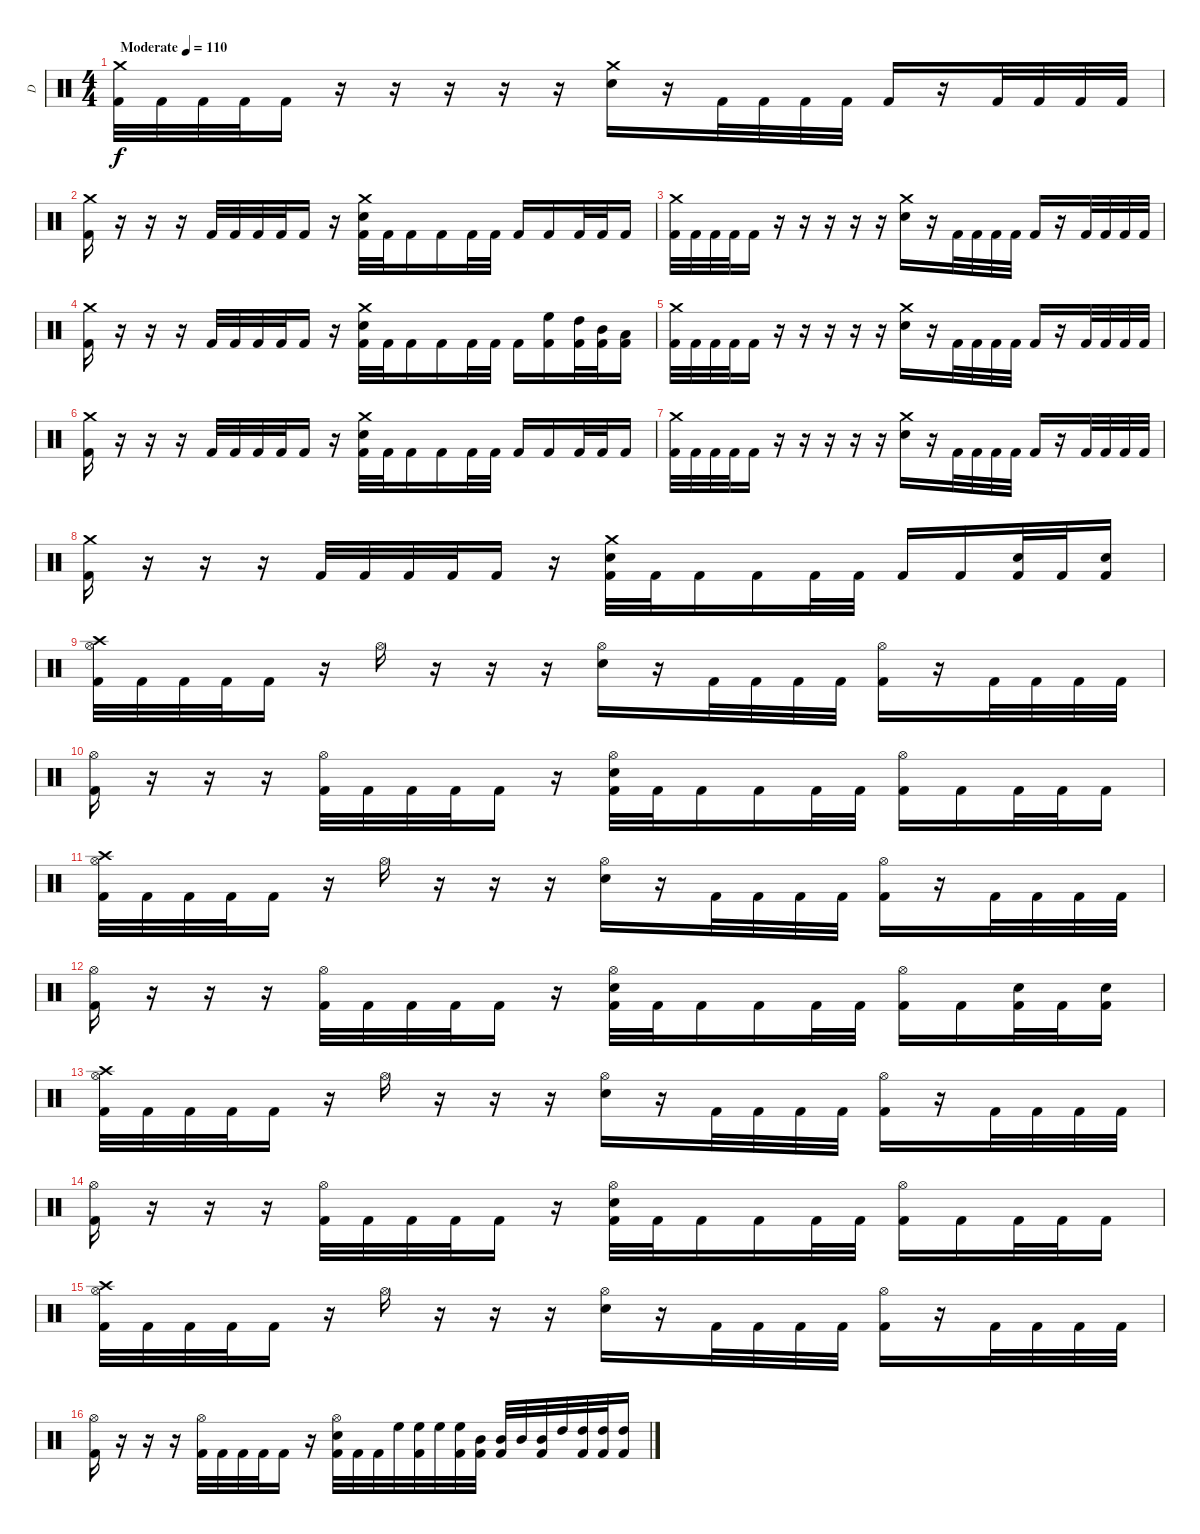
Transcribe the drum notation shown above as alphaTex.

\track ("D" "D") {instrument percussion}
\staff {score}
\articulation defaults
\ts (4 4)
\tempo (110 "Moderate")
\clef neutral
\ks c
("Crash medium (hit)" "Kick (hit) 2").32{dy f} "Kick (hit) 2".32 "Kick (hit) 2".32 "Kick (hit) 2".32 "Kick (hit) 2".16 r.16 r.16 r.16 r.16 r.16 ("Crash medium (hit)" "Electric Snare (hit)").16 r.16 "Kick (hit) 2".32 "Kick (hit) 2".32 "Kick (hit) 2".32 "Kick (hit) 2".32 "Kick (hit) 2".16 r.16 "Kick (hit) 2".32 "Kick (hit) 2".32 "Kick (hit) 2".32 "Kick (hit) 2".32 |
("Crash medium (hit)" "Kick (hit) 2").16 r.16 r.16 r.16 "Kick (hit) 2".32 "Kick (hit) 2".32 "Kick (hit) 2".32 "Kick (hit) 2".32 "Kick (hit) 2".16 r.16 ("Crash medium (hit)" "Electric Snare (hit)" "Kick (hit) 2").32 "Kick (hit) 2".32 "Kick (hit) 2".16 "Kick (hit) 2".16 "Kick (hit) 2".32 "Kick (hit) 2".32 "Kick (hit) 2".16 "Kick (hit) 2".16 "Kick (hit) 2".32 "Kick (hit) 2".32 "Kick (hit) 2".16 |
("Crash medium (hit)" "Kick (hit) 2").32 "Kick (hit) 2".32 "Kick (hit) 2".32 "Kick (hit) 2".32 "Kick (hit) 2".16 r.16 r.16 r.16 r.16 r.16 ("Crash medium (hit)" "Electric Snare (hit)").16 r.16 "Kick (hit) 2".32 "Kick (hit) 2".32 "Kick (hit) 2".32 "Kick (hit) 2".32 "Kick (hit) 2".16 r.16 "Kick (hit) 2".32 "Kick (hit) 2".32 "Kick (hit) 2".32 "Kick (hit) 2".32 |
("Crash medium (hit)" "Kick (hit) 2").16 r.16 r.16 r.16 "Kick (hit) 2".32 "Kick (hit) 2".32 "Kick (hit) 2".32 "Kick (hit) 2".32 "Kick (hit) 2".16 r.16 ("Crash medium (hit)" "Electric Snare (hit)" "Kick (hit) 2").32 "Kick (hit) 2".32 "Kick (hit) 2".16 "Kick (hit) 2".16 "Kick (hit) 2".32 "Kick (hit) 2".32 "Kick (hit) 2".16 ("High Floor Tom (hit)" "Kick (hit) 2").16 ("High Tom (hit)" "Kick (hit) 2").32 ("Mid Tom (hit)" "Kick (hit) 2").32 ("Low Tom (hit)" "Kick (hit) 2").16 |
("Crash medium (hit)" "Kick (hit) 2").32 "Kick (hit) 2".32 "Kick (hit) 2".32 "Kick (hit) 2".32 "Kick (hit) 2".16 r.16 r.16 r.16 r.16 r.16 ("Crash medium (hit)" "Electric Snare (hit)").16 r.16 "Kick (hit) 2".32 "Kick (hit) 2".32 "Kick (hit) 2".32 "Kick (hit) 2".32 "Kick (hit) 2".16 r.16 "Kick (hit) 2".32 "Kick (hit) 2".32 "Kick (hit) 2".32 "Kick (hit) 2".32 |
("Crash medium (hit)" "Kick (hit) 2").16 r.16 r.16 r.16 "Kick (hit) 2".32 "Kick (hit) 2".32 "Kick (hit) 2".32 "Kick (hit) 2".32 "Kick (hit) 2".16 r.16 ("Crash medium (hit)" "Electric Snare (hit)" "Kick (hit) 2").32 "Kick (hit) 2".32 "Kick (hit) 2".16 "Kick (hit) 2".16 "Kick (hit) 2".32 "Kick (hit) 2".32 "Kick (hit) 2".16 "Kick (hit) 2".16 "Kick (hit) 2".32 "Kick (hit) 2".32 "Kick (hit) 2".16 |
("Crash medium (hit)" "Kick (hit) 2").32 "Kick (hit) 2".32 "Kick (hit) 2".32 "Kick (hit) 2".32 "Kick (hit) 2".16 r.16 r.16 r.16 r.16 r.16 ("Crash medium (hit)" "Electric Snare (hit)").16 r.16 "Kick (hit) 2".32 "Kick (hit) 2".32 "Kick (hit) 2".32 "Kick (hit) 2".32 "Kick (hit) 2".16 r.16 "Kick (hit) 2".32 "Kick (hit) 2".32 "Kick (hit) 2".32 "Kick (hit) 2".32 |
("Crash medium (hit)" "Kick (hit) 2").16 r.16 r.16 r.16 "Kick (hit) 2".32 "Kick (hit) 2".32 "Kick (hit) 2".32 "Kick (hit) 2".32 "Kick (hit) 2".16 r.16 ("Crash medium (hit)" "Electric Snare (hit)" "Kick (hit) 2").32 "Kick (hit) 2".32 "Kick (hit) 2".16 "Kick (hit) 2".16 "Kick (hit) 2".32 "Kick (hit) 2".32 "Kick (hit) 2".16 "Kick (hit) 2".16 ("Electric Snare (hit)" "Kick (hit) 2").32 "Kick (hit) 2".32 ("Electric Snare (hit)" "Kick (hit) 2").16 |
("Crash high (hit)" "Kick (hit) 2" "Hi-Hat (open)").32 "Kick (hit) 2".32 "Kick (hit) 2".32 "Kick (hit) 2".32 "Kick (hit) 2".16 r.16 "Hi-Hat (open)".16 r.16 r.16 r.16 ("Electric Snare (hit)" "Hi-Hat (open)").16 r.16 "Kick (hit) 2".32 "Kick (hit) 2".32 "Kick (hit) 2".32 "Kick (hit) 2".32 ("Kick (hit) 2" "Hi-Hat (open)").16 r.16 "Kick (hit) 2".32 "Kick (hit) 2".32 "Kick (hit) 2".32 "Kick (hit) 2".32 |
("Kick (hit) 2" "Hi-Hat (open)").16 r.16 r.16 r.16 ("Kick (hit) 2" "Hi-Hat (open)").32 "Kick (hit) 2".32 "Kick (hit) 2".32 "Kick (hit) 2".32 "Kick (hit) 2".16 r.16 ("Electric Snare (hit)" "Kick (hit) 2" "Hi-Hat (open)").32 "Kick (hit) 2".32 "Kick (hit) 2".16 "Kick (hit) 2".16 "Kick (hit) 2".32 "Kick (hit) 2".32 ("Kick (hit) 2" "Hi-Hat (open)").16 "Kick (hit) 2".16 "Kick (hit) 2".32 "Kick (hit) 2".32 "Kick (hit) 2".16 |
("Crash high (hit)" "Kick (hit) 2" "Hi-Hat (open)").32 "Kick (hit) 2".32 "Kick (hit) 2".32 "Kick (hit) 2".32 "Kick (hit) 2".16 r.16 "Hi-Hat (open)".16 r.16 r.16 r.16 ("Electric Snare (hit)" "Hi-Hat (open)").16 r.16 "Kick (hit) 2".32 "Kick (hit) 2".32 "Kick (hit) 2".32 "Kick (hit) 2".32 ("Kick (hit) 2" "Hi-Hat (open)").16 r.16 "Kick (hit) 2".32 "Kick (hit) 2".32 "Kick (hit) 2".32 "Kick (hit) 2".32 |
("Kick (hit) 2" "Hi-Hat (open)").16 r.16 r.16 r.16 ("Kick (hit) 2" "Hi-Hat (open)").32 "Kick (hit) 2".32 "Kick (hit) 2".32 "Kick (hit) 2".32 "Kick (hit) 2".16 r.16 ("Electric Snare (hit)" "Kick (hit) 2" "Hi-Hat (open)").32 "Kick (hit) 2".32 "Kick (hit) 2".16 "Kick (hit) 2".16 "Kick (hit) 2".32 "Kick (hit) 2".32 ("Kick (hit) 2" "Hi-Hat (open)").16 "Kick (hit) 2".16 ("Electric Snare (hit)" "Kick (hit) 2").32 "Kick (hit) 2".32 ("Electric Snare (hit)" "Kick (hit) 2").16 |
("Crash high (hit)" "Kick (hit) 2" "Hi-Hat (open)").32 "Kick (hit) 2".32 "Kick (hit) 2".32 "Kick (hit) 2".32 "Kick (hit) 2".16 r.16 "Hi-Hat (open)".16 r.16 r.16 r.16 ("Electric Snare (hit)" "Hi-Hat (open)").16 r.16 "Kick (hit) 2".32 "Kick (hit) 2".32 "Kick (hit) 2".32 "Kick (hit) 2".32 ("Kick (hit) 2" "Hi-Hat (open)").16 r.16 "Kick (hit) 2".32 "Kick (hit) 2".32 "Kick (hit) 2".32 "Kick (hit) 2".32 |
("Kick (hit) 2" "Hi-Hat (open)").16 r.16 r.16 r.16 ("Kick (hit) 2" "Hi-Hat (open)").32 "Kick (hit) 2".32 "Kick (hit) 2".32 "Kick (hit) 2".32 "Kick (hit) 2".16 r.16 ("Electric Snare (hit)" "Kick (hit) 2" "Hi-Hat (open)").32 "Kick (hit) 2".32 "Kick (hit) 2".16 "Kick (hit) 2".16 "Kick (hit) 2".32 "Kick (hit) 2".32 ("Kick (hit) 2" "Hi-Hat (open)").16 "Kick (hit) 2".16 "Kick (hit) 2".32 "Kick (hit) 2".32 "Kick (hit) 2".16 |
("Crash high (hit)" "Kick (hit) 2" "Hi-Hat (open)").32 "Kick (hit) 2".32 "Kick (hit) 2".32 "Kick (hit) 2".32 "Kick (hit) 2".16 r.16 "Hi-Hat (open)".16 r.16 r.16 r.16 ("Electric Snare (hit)" "Hi-Hat (open)").16 r.16 "Kick (hit) 2".32 "Kick (hit) 2".32 "Kick (hit) 2".32 "Kick (hit) 2".32 ("Kick (hit) 2" "Hi-Hat (open)").16 r.16 "Kick (hit) 2".32 "Kick (hit) 2".32 "Kick (hit) 2".32 "Kick (hit) 2".32 |
("Kick (hit) 2" "Hi-Hat (open)").16 r.16 r.16 r.16 ("Kick (hit) 2" "Hi-Hat (open)").32 "Kick (hit) 2".32 "Kick (hit) 2".32 "Kick (hit) 2".32 "Kick (hit) 2".16 r.16 ("Electric Snare (hit)" "Kick (hit) 2" "Hi-Hat (open)").32 "Kick (hit) 2".32 "Kick (hit) 2".32 "High Floor Tom (hit)".32 ("High Floor Tom (hit)" "Kick (hit) 2").32 "High Floor Tom (hit)".32 ("High Floor Tom (hit)" "Kick (hit) 2").32 ("Mid Tom (hit)" "Kick (hit) 2").32 ("Mid Tom (hit)" "Kick (hit) 2").32 "Mid Tom (hit)".32 ("Mid Tom (hit)" "Kick (hit) 2").32 "High Tom (hit)".32 ("High Tom (hit)" "Kick (hit) 2").32 ("High Tom (hit)" "Kick (hit) 2").32 ("High Tom (hit)" "Kick (hit) 2").16
